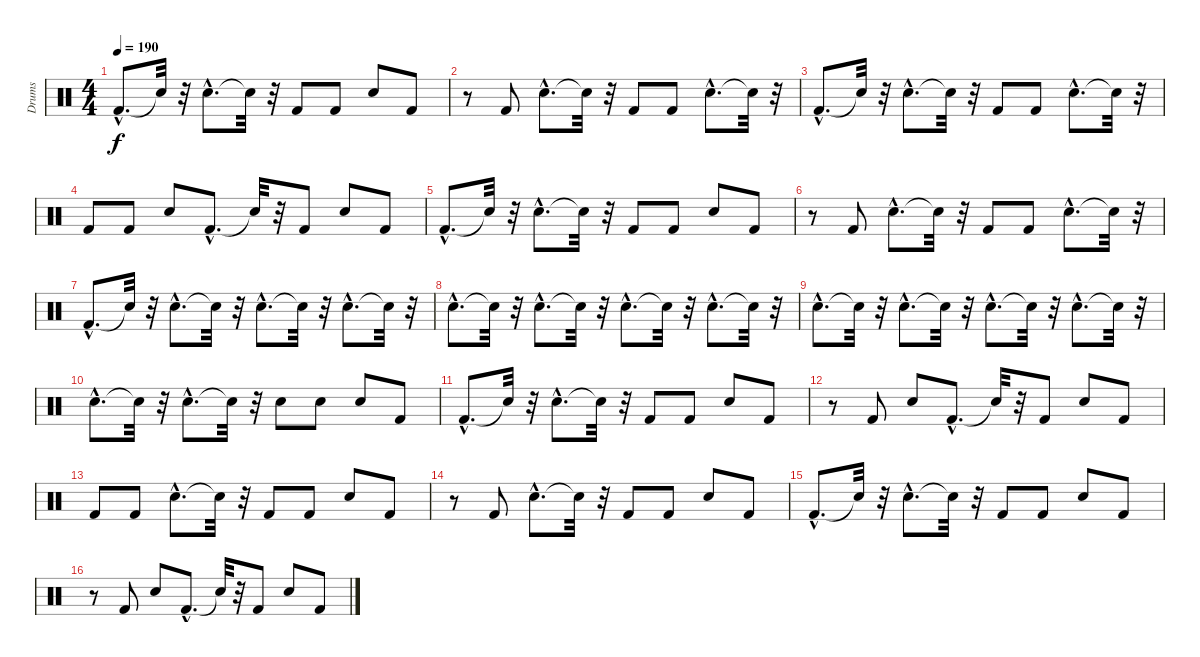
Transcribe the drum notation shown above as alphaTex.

\track ("Drums" "Drums") {instrument percussion}
\staff {score}
\articulation defaults
\ts (4 4)
\tempo 190
\clef neutral
\ks c "Kick (hit) 2"{hac}.8{d dy f} "Snare (hit)"{t}.32
r.32 "Electric Snare (hit)"{hac}.8{d} "Snare (hit)"{t}.32 r.32 "Kick (hit) 2".8 "Kick (hit) 2".8 "Electric Snare (hit)".8 "Kick (hit) 2".8 |
r.8 "Kick (hit) 2".8 "Electric Snare (hit)"{hac}.8{d} "Snare (hit)"{t}.32 r.32 "Kick (hit) 2".8 "Kick (hit) 2".8 "Electric Snare (hit)"{hac}.8{d} "Snare (hit)"{t}.32 r.32 |
"Kick (hit) 2"{hac}.8{d} "Snare (hit)"{t}.32 r.32 "Electric Snare (hit)"{hac}.8{d} "Snare (hit)"{t}.32 r.32 "Kick (hit) 2".8 "Kick (hit) 2".8 "Electric Snare (hit)"{hac}.8{d} "Snare (hit)"{t}.32 r.32 |
"Kick (hit) 2".8 "Kick (hit) 2".8 "Electric Snare (hit)".8 "Kick (hit) 2"{hac}.8{d} "Snare (hit)"{t}.32 r.32 "Kick (hit) 2".8 "Electric Snare (hit)".8 "Kick (hit) 2".8 |
"Kick (hit) 2"{hac}.8{d} "Snare (hit)"{t}.32 r.32 "Electric Snare (hit)"{hac}.8{d} "Snare (hit)"{t}.32 r.32 "Kick (hit) 2".8 "Kick (hit) 2".8 "Electric Snare (hit)".8 "Kick (hit) 2".8 |
r.8 "Kick (hit) 2".8 "Electric Snare (hit)"{hac}.8{d} "Snare (hit)"{t}.32 r.32 "Kick (hit) 2".8 "Kick (hit) 2".8 "Electric Snare (hit)"{hac}.8{d} "Snare (hit)"{t}.32 r.32 |
"Kick (hit) 2"{hac}.8{d} "Snare (hit)"{t}.32 r.32 "Electric Snare (hit)"{hac}.8{d} "Snare (hit)"{t}.32 r.32 "Electric Snare (hit)"{hac}.8{d} "Snare (hit)"{t}.32 r.32 "Electric Snare (hit)"{hac}.8{d} "Snare (hit)"{t}.32 r.32 |
"Electric Snare (hit)"{hac}.8{d} "Snare (hit)"{t}.32 r.32 "Electric Snare (hit)"{hac}.8{d} "Snare (hit)"{t}.32 r.32 "Electric Snare (hit)"{hac}.8{d} "Snare (hit)"{t}.32 r.32 "Electric Snare (hit)"{hac}.8{d} "Snare (hit)"{t}.32 r.32 |
"Electric Snare (hit)"{hac}.8{d} "Snare (hit)"{t}.32 r.32 "Electric Snare (hit)"{hac}.8{d} "Snare (hit)"{t}.32 r.32 "Electric Snare (hit)"{hac}.8{d} "Snare (hit)"{t}.32 r.32 "Electric Snare (hit)"{hac}.8{d} "Snare (hit)"{t}.32 r.32 |
"Electric Snare (hit)"{hac}.8{d} "Snare (hit)"{t}.32 r.32 "Electric Snare (hit)"{hac}.8{d} "Snare (hit)"{t}.32 r.32 "Electric Snare (hit)".8 "Electric Snare (hit)".8 "Electric Snare (hit)".8 "Kick (hit) 2".8 |
"Kick (hit) 2"{hac}.8{d} "Snare (hit)"{t}.32 r.32 "Electric Snare (hit)"{hac}.8{d} "Snare (hit)"{t}.32 r.32 "Kick (hit) 2".8 "Kick (hit) 2".8 "Electric Snare (hit)".8 "Kick (hit) 2".8 |
r.8 "Kick (hit) 2".8 "Electric Snare (hit)".8 "Kick (hit) 2"{hac}.8{d} "Snare (hit)"{t}.32 r.32 "Kick (hit) 2".8 "Electric Snare (hit)".8 "Kick (hit) 2".8 |
"Kick (hit) 2".8 "Kick (hit) 2".8 "Electric Snare (hit)"{hac}.8{d} "Snare (hit)"{t}.32 r.32 "Kick (hit) 2".8 "Kick (hit) 2".8 "Electric Snare (hit)".8 "Kick (hit) 2".8 |
r.8 "Kick (hit) 2".8 "Electric Snare (hit)"{hac}.8{d} "Snare (hit)"{t}.32 r.32 "Kick (hit) 2".8 "Kick (hit) 2".8 "Electric Snare (hit)".8 "Kick (hit) 2".8 |
"Kick (hit) 2"{hac}.8{d} "Snare (hit)"{t}.32 r.32 "Electric Snare (hit)"{hac}.8{d} "Snare (hit)"{t}.32 r.32 "Kick (hit) 2".8 "Kick (hit) 2".8 "Electric Snare (hit)".8 "Kick (hit) 2".8 |
r.8 "Kick (hit) 2".8 "Electric Snare (hit)".8 "Kick (hit) 2"{hac}.8{d} "Snare (hit)"{t}.32 r.32 "Kick (hit) 2".8 "Electric Snare (hit)".8 "Kick (hit) 2".8
